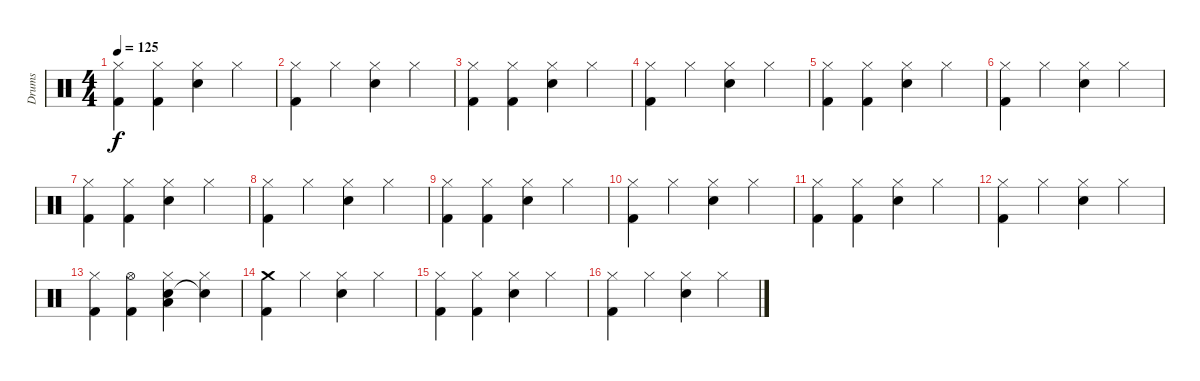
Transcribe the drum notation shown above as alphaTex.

\track ("Drums" "Drums") {instrument percussion}
\staff {score}
\articulation defaults
\ts (4 4)
\tempo 125
\clef neutral
\ks c
("Hi-Hat (closed)" "Kick (hit) 2").4{dy f} ("Hi-Hat (closed)" "Kick (hit) 2").4 ("Hi-Hat (closed)" "Snare (hit) 2").4 "Hi-Hat (closed)".4 |
("Hi-Hat (closed)" "Kick (hit) 2").4 "Hi-Hat (closed)".4 ("Hi-Hat (closed)" "Snare (hit) 2").4 "Hi-Hat (closed)".4 |
("Hi-Hat (closed)" "Kick (hit) 2").4 ("Hi-Hat (closed)" "Kick (hit) 2").4 ("Hi-Hat (closed)" "Snare (hit) 2").4 "Hi-Hat (closed)".4 |
("Hi-Hat (closed)" "Kick (hit) 2").4 "Hi-Hat (closed)".4 ("Hi-Hat (closed)" "Snare (hit) 2").4 "Hi-Hat (closed)".4 |
("Hi-Hat (closed)" "Kick (hit) 2").4 ("Hi-Hat (closed)" "Kick (hit) 2").4 ("Hi-Hat (closed)" "Snare (hit) 2").4 "Hi-Hat (closed)".4 |
("Hi-Hat (closed)" "Kick (hit) 2").4 "Hi-Hat (closed)".4 ("Hi-Hat (closed)" "Snare (hit) 2").4 "Hi-Hat (closed)".4 |
("Hi-Hat (closed)" "Kick (hit) 2").4 ("Hi-Hat (closed)" "Kick (hit) 2").4 ("Hi-Hat (closed)" "Snare (hit) 2").4 "Hi-Hat (closed)".4 |
("Hi-Hat (closed)" "Kick (hit) 2").4 "Hi-Hat (closed)".4 ("Hi-Hat (closed)" "Snare (hit) 2").4 "Hi-Hat (closed)".4 |
("Hi-Hat (closed)" "Kick (hit) 2").4 ("Hi-Hat (closed)" "Kick (hit) 2").4 ("Hi-Hat (closed)" "Snare (hit) 2").4 "Hi-Hat (closed)".4 |
("Hi-Hat (closed)" "Kick (hit) 2").4 "Hi-Hat (closed)".4 ("Hi-Hat (closed)" "Snare (hit) 2").4 "Hi-Hat (closed)".4 |
("Hi-Hat (closed)" "Kick (hit) 2").4 ("Hi-Hat (closed)" "Kick (hit) 2").4 ("Hi-Hat (closed)" "Snare (hit) 2").4 "Hi-Hat (closed)".4 |
("Hi-Hat (closed)" "Kick (hit) 2").4 "Hi-Hat (closed)".4 ("Hi-Hat (closed)" "Snare (hit) 2").4 "Hi-Hat (closed)".4 |
("Hi-Hat (closed)" "Kick (hit) 2").4 ("Hi-Hat (open)" "Kick (hit) 2").4 ("Hi-Hat (closed)" "Snare (hit) 2" "Low Tom (hit)").4 ("Hi-Hat (closed)" "Snare (hit)"{t}).4 |
("Crash medium (hit)" "Kick (hit) 2").4 "Hi-Hat (closed)".4 ("Hi-Hat (closed)" "Snare (hit) 2").4 "Hi-Hat (closed)".4 |
("Hi-Hat (closed)" "Kick (hit) 2").4 ("Hi-Hat (closed)" "Kick (hit) 2").4 ("Hi-Hat (closed)" "Snare (hit) 2").4 "Hi-Hat (closed)".4 |
("Hi-Hat (closed)" "Kick (hit) 2").4 "Hi-Hat (closed)".4 ("Hi-Hat (closed)" "Snare (hit) 2").4 "Hi-Hat (closed)".4
